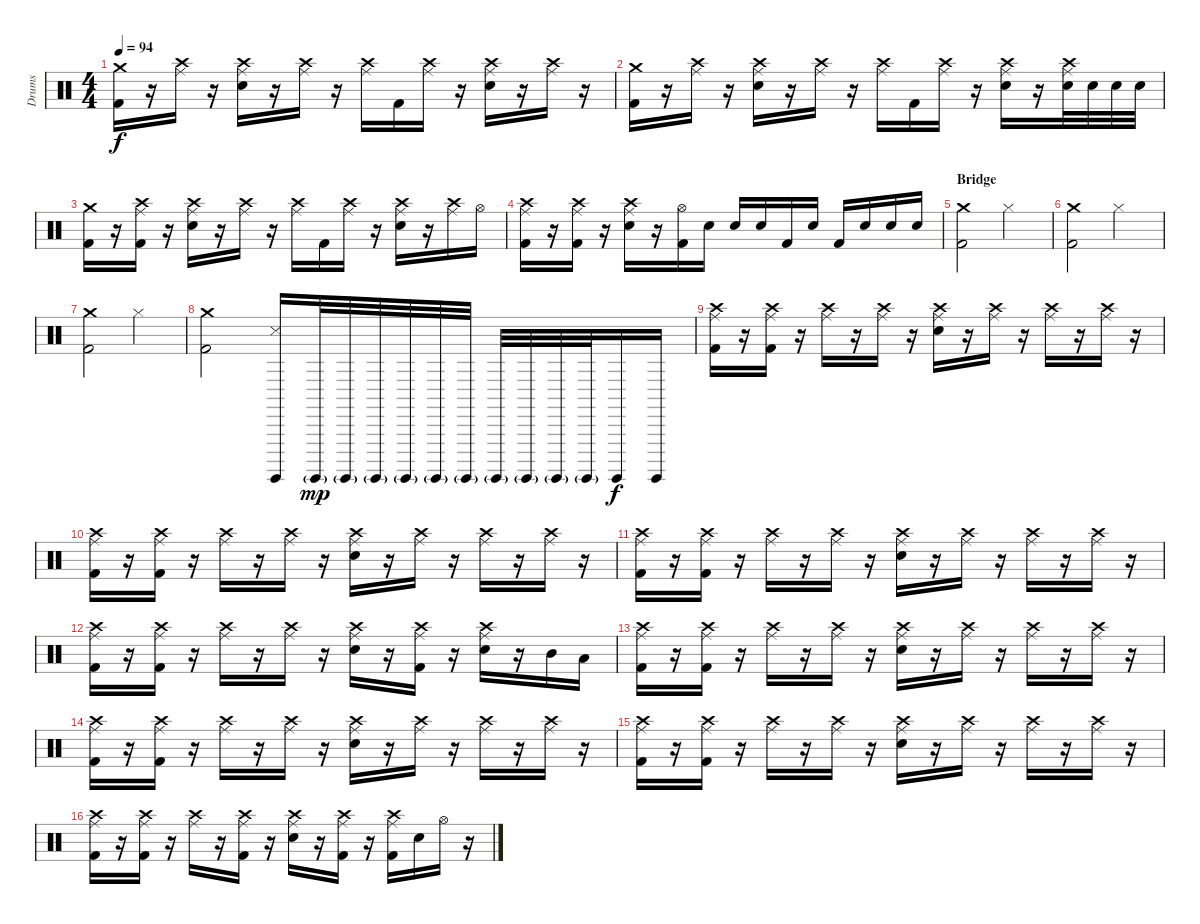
\track ("Drums" "Drums") {instrument percussion}
\staff {score}
\articulation defaults
\ts (4 4)
\tempo 94
\clef neutral
\ks c
("Crash medium (hit)" "Kick (hit) 2").16{dy f} r.16 ("Ride (middle)" "Crash high (hit)").16 r.16 ("Ride (middle)" "Crash high (hit)" "Electric Snare (hit)").16 r.16 ("Ride (middle)" "Crash high (hit)").16 r.16 ("Ride (middle)" "Crash high (hit)").16 "Kick (hit) 2".16 ("Ride (middle)" "Crash high (hit)").16 r.16 ("Ride (middle)" "Crash high (hit)" "Electric Snare (hit)").16 r.16 ("Ride (middle)" "Crash high (hit)").16 r.16 |
("Crash medium (hit)" "Kick (hit) 2").16 r.16 ("Ride (middle)" "Crash high (hit)").16 r.16 ("Ride (middle)" "Crash high (hit)" "Electric Snare (hit)").16 r.16 ("Ride (middle)" "Crash high (hit)").16 r.16 ("Ride (middle)" "Crash high (hit)").16 "Kick (hit) 2".16 ("Ride (middle)" "Crash high (hit)").16 r.16 ("Ride (middle)" "Crash high (hit)" "Electric Snare (hit)").16 r.16 ("Ride (middle)" "Crash high (hit)" "Electric Snare (hit)").32 "Electric Snare (hit)".32 "Electric Snare (hit)".32 "Electric Snare (hit)".32 |
("Crash medium (hit)" "Kick (hit) 2").16 r.16 ("Ride (middle)" "Crash high (hit)" "Kick (hit) 2").16 r.16 ("Ride (middle)" "Crash high (hit)" "Electric Snare (hit)").16 r.16 ("Ride (middle)" "Crash high (hit)").16 r.16 ("Ride (middle)" "Crash high (hit)").16 "Kick (hit) 2".16 ("Ride (middle)" "Crash high (hit)").16 r.16 ("Ride (middle)" "Crash high (hit)" "Electric Snare (hit)").16 r.16 ("Ride (middle)" "Crash high (hit)").16 "Hi-Hat (open)".16 |
("Ride (middle)" "Crash high (hit)" "Kick (hit) 2").16 r.16 ("Ride (middle)" "Crash high (hit)" "Kick (hit) 2").16 r.16 ("Ride (middle)" "Crash high (hit)" "Electric Snare (hit)").16 r.16 ("Hi-Hat (open)" "Kick (hit) 2").16 "Electric Snare (hit)".16 "Electric Snare (hit)".16 "Electric Snare (hit)".16 "Kick (hit) 2".16 "Electric Snare (hit)".16 "Kick (hit) 2".16 "Electric Snare (hit)".16 "Electric Snare (hit)".16 "Electric Snare (hit)".16 |
\section ("" "Bridge")
("Crash medium (hit)" "Kick (hit) 2").2 "Hi-Hat (closed)".2 |
("Crash medium (hit)" "Kick (hit) 2").2 "Hi-Hat (closed)".2 |
("Crash medium (hit)" "Kick (hit) 2").2 "Hi-Hat (closed)".2 |
("Crash medium (hit)" "Kick (hit) 2").2 ("Snare (side stick) 3" "Surdo (hit)").16 "Surdo (hit)"{g}.32{dy mp} "Surdo (hit)"{g}.32 "Surdo (hit)"{g}.32 "Surdo (hit)"{g}.32 "Surdo (hit)"{g}.32 "Surdo (hit)"{g}.32 "Surdo (hit)"{g}.32 "Surdo (hit)"{g}.32 "Surdo (hit)"{g}.32 "Surdo (hit)"{g}.32 "Surdo (hit)".16{dy f} "Surdo (hit)".16 |
("Ride (middle)" "Crash high (hit)" "Kick (hit) 2").16 r.16 ("Ride (middle)" "Crash high (hit)" "Kick (hit) 2").16 r.16 ("Ride (middle)" "Crash high (hit)").16 r.16 ("Ride (middle)" "Crash high (hit)").16 r.16 ("Ride (middle)" "Crash high (hit)" "Electric Snare (hit)").16 r.16 ("Ride (middle)" "Crash high (hit)").16 r.16 ("Ride (middle)" "Crash high (hit)").16 r.16 ("Ride (middle)" "Crash high (hit)").16 r.16 |
("Ride (middle)" "Crash high (hit)" "Kick (hit) 2").16 r.16 ("Ride (middle)" "Crash high (hit)" "Kick (hit) 2").16 r.16 ("Ride (middle)" "Crash high (hit)").16 r.16 ("Ride (middle)" "Crash high (hit)").16 r.16 ("Ride (middle)" "Crash high (hit)" "Electric Snare (hit)").16 r.16 ("Ride (middle)" "Crash high (hit)").16 r.16 ("Ride (middle)" "Crash high (hit)").16 r.16 ("Ride (middle)" "Crash high (hit)").16 r.16 |
("Ride (middle)" "Crash high (hit)" "Kick (hit) 2").16 r.16 ("Ride (middle)" "Crash high (hit)" "Kick (hit) 2").16 r.16 ("Ride (middle)" "Crash high (hit)").16 r.16 ("Ride (middle)" "Crash high (hit)").16 r.16 ("Ride (middle)" "Crash high (hit)" "Electric Snare (hit)").16 r.16 ("Ride (middle)" "Crash high (hit)").16 r.16 ("Ride (middle)" "Crash high (hit)").16 r.16 ("Ride (middle)" "Crash high (hit)").16 r.16 |
("Ride (middle)" "Crash high (hit)" "Kick (hit) 2").16 r.16 ("Ride (middle)" "Crash high (hit)" "Kick (hit) 2").16 r.16 ("Ride (middle)" "Crash high (hit)").16 r.16 ("Ride (middle)" "Crash high (hit)").16 r.16 ("Ride (middle)" "Crash high (hit)" "Electric Snare (hit)").16 r.16 ("Ride (middle)" "Crash high (hit)" "Kick (hit) 2").16 r.16 ("Ride (middle)" "Crash high (hit)" "Electric Snare (hit)").16 r.16 "Mid Tom (hit)".16 "Low Tom (hit)".16 |
("Ride (middle)" "Crash high (hit)" "Kick (hit) 2").16 r.16 ("Ride (middle)" "Crash high (hit)" "Kick (hit) 2").16 r.16 ("Ride (middle)" "Crash high (hit)").16 r.16 ("Ride (middle)" "Crash high (hit)").16 r.16 ("Ride (middle)" "Crash high (hit)" "Electric Snare (hit)").16 r.16 ("Ride (middle)" "Crash high (hit)").16 r.16 ("Ride (middle)" "Crash high (hit)").16 r.16 ("Ride (middle)" "Crash high (hit)").16 r.16 |
("Ride (middle)" "Crash high (hit)" "Kick (hit) 2").16 r.16 ("Ride (middle)" "Crash high (hit)" "Kick (hit) 2").16 r.16 ("Ride (middle)" "Crash high (hit)").16 r.16 ("Ride (middle)" "Crash high (hit)").16 r.16 ("Ride (middle)" "Crash high (hit)" "Electric Snare (hit)").16 r.16 ("Ride (middle)" "Crash high (hit)").16 r.16 ("Ride (middle)" "Crash high (hit)").16 r.16 ("Ride (middle)" "Crash high (hit)").16 r.16 |
("Ride (middle)" "Crash high (hit)" "Kick (hit) 2").16 r.16 ("Ride (middle)" "Crash high (hit)" "Kick (hit) 2").16 r.16 ("Ride (middle)" "Crash high (hit)").16 r.16 ("Ride (middle)" "Crash high (hit)").16 r.16 ("Ride (middle)" "Crash high (hit)" "Electric Snare (hit)").16 r.16 ("Ride (middle)" "Crash high (hit)").16 r.16 ("Ride (middle)" "Crash high (hit)").16 r.16 ("Ride (middle)" "Crash high (hit)").16 r.16 |
("Ride (middle)" "Crash high (hit)" "Kick (hit) 2").16 r.16 ("Ride (middle)" "Crash high (hit)" "Kick (hit) 2").16 r.16 ("Ride (middle)" "Crash high (hit)").16 r.16 ("Ride (middle)" "Crash high (hit)" "Kick (hit) 2").16 r.16 ("Ride (middle)" "Crash high (hit)" "Electric Snare (hit)").16 r.16 ("Ride (middle)" "Crash high (hit)" "Kick (hit) 2").16 r.16 ("Ride (middle)" "Crash high (hit)" "Kick (hit) 2").16 "Electric Snare (hit)".16 "Hi-Hat (open)".16 r.16
